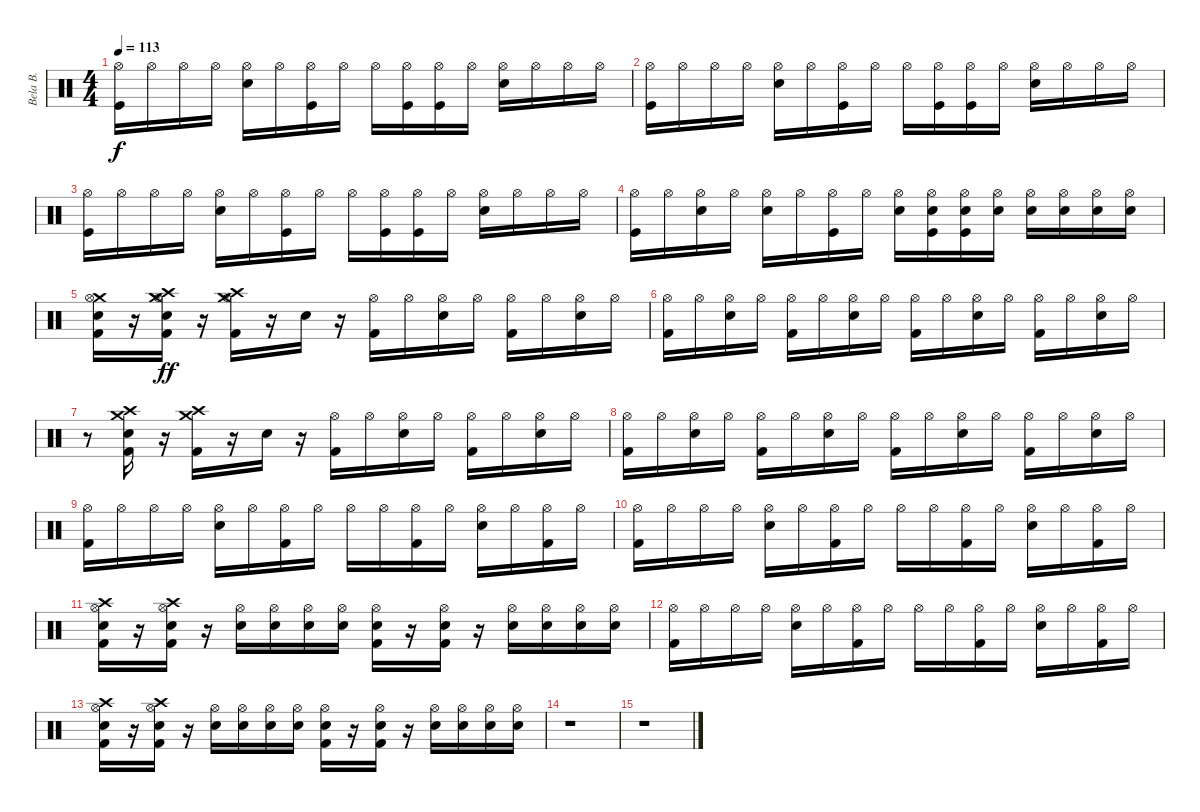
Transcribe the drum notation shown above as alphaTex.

\track ("Bela B." "Bela B.") {instrument percussion}
\staff {score}
\articulation defaults
\ts (4 4)
\tempo 113
\clef neutral
\ks c
("Kick (hit)" "Hi-Hat (open)").16{dy f} "Hi-Hat (open)".16 "Hi-Hat (open)".16 "Hi-Hat (open)".16 ("Hi-Hat (open)" "Snare (hit) 2").16 "Hi-Hat (open)".16 ("Kick (hit)" "Hi-Hat (open)").16 "Hi-Hat (open)".16 "Hi-Hat (open)".16 ("Hi-Hat (open)" "Kick (hit)").16 ("Kick (hit)" "Hi-Hat (open)").16 "Hi-Hat (open)".16 ("Snare (hit) 2" "Hi-Hat (open)").16 "Hi-Hat (open)".16 "Hi-Hat (open)".16 "Hi-Hat (open)".16 |
("Kick (hit)" "Hi-Hat (open)").16 "Hi-Hat (open)".16 "Hi-Hat (open)".16 "Hi-Hat (open)".16 ("Snare (hit) 2" "Hi-Hat (open)").16 "Hi-Hat (open)".16 ("Kick (hit)" "Hi-Hat (open)").16 "Hi-Hat (open)".16 "Hi-Hat (open)".16 ("Hi-Hat (open)" "Kick (hit)").16 ("Kick (hit)" "Hi-Hat (open)").16 "Hi-Hat (open)".16 ("Snare (hit) 2" "Hi-Hat (open)").16 "Hi-Hat (open)".16 "Hi-Hat (open)".16 "Hi-Hat (open)".16 |
("Kick (hit)" "Hi-Hat (open)").16 "Hi-Hat (open)".16 "Hi-Hat (open)".16 "Hi-Hat (open)".16 ("Snare (hit) 2" "Hi-Hat (open)").16 "Hi-Hat (open)".16 ("Hi-Hat (open)" "Kick (hit)").16 "Hi-Hat (open)".16 "Hi-Hat (open)".16 ("Kick (hit)" "Hi-Hat (open)").16 ("Hi-Hat (open)" "Kick (hit)").16 "Hi-Hat (open)".16 ("Snare (hit) 2" "Hi-Hat (open)").16 "Hi-Hat (open)".16 "Hi-Hat (open)".16 "Hi-Hat (open)".16 |
("Kick (hit)" "Hi-Hat (open)").16 "Hi-Hat (open)".16 ("Snare (hit) 2" "Hi-Hat (open)").16 "Hi-Hat (open)".16 ("Hi-Hat (open)" "Snare (hit) 2").16 "Hi-Hat (open)".16 ("Hi-Hat (open)" "Kick (hit)").16 "Hi-Hat (open)".16 ("Hi-Hat (open)" "Snare (hit) 2").16 ("Snare (hit) 2" "Kick (hit)" "Hi-Hat (open)").16 ("Snare (hit) 2" "Hi-Hat (open)" "Kick (hit)").16 ("Hi-Hat (open)" "Snare (hit) 2").16 ("Hi-Hat (open)" "Snare (hit) 2").16 ("Hi-Hat (open)" "Snare (hit) 2").16 ("Hi-Hat (open)" "Snare (hit) 2").16 ("Hi-Hat (open)" "Snare (hit) 2").16 |
("Crash medium (hit)" "Kick (hit) 2" "Snare (hit) 2" "Hi-Hat (open)").16 r.16 ("Crash medium (hit)" "Crash high (hit)" "Kick (hit) 2" "Snare (hit) 2" "Hi-Hat (open)").16{dy ff} r.16 ("Crash high (hit)" "Kick (hit) 2" "Hi-Hat (open)" "Crash medium (hit)").16 r.16 "Snare (hit) 2".16 r.16 ("Hi-Hat (open)" "Kick (hit) 2").16 "Hi-Hat (open)".16 ("Hi-Hat (open)" "Snare (hit) 2").16 "Hi-Hat (open)".16 ("Kick (hit) 2" "Hi-Hat (open)").16 "Hi-Hat (open)".16 ("Hi-Hat (open)" "Snare (hit) 2").16 "Hi-Hat (open)".16 |
("Hi-Hat (open)" "Kick (hit) 2").16 "Hi-Hat (open)".16 ("Snare (hit) 2" "Hi-Hat (open)").16 "Hi-Hat (open)".16 ("Hi-Hat (open)" "Kick (hit) 2").16 "Hi-Hat (open)".16 ("Hi-Hat (open)" "Snare (hit) 2").16 "Hi-Hat (open)".16 ("Hi-Hat (open)" "Kick (hit) 2").16 "Hi-Hat (open)".16 ("Hi-Hat (open)" "Snare (hit) 2").16 "Hi-Hat (open)".16 ("Hi-Hat (open)" "Kick (hit) 2").16 "Hi-Hat (open)".16 ("Snare (hit) 2" "Hi-Hat (open)").16 "Hi-Hat (open)".16 |
r.8 ("Snare (hit) 2" "Crash high (hit)" "Crash medium (hit)" "Kick (hit) 2").16 r.16 ("Crash medium (hit)" "Kick (hit) 2" "Crash high (hit)").16 r.16 "Snare (hit) 2".16 r.16 ("Kick (hit) 2" "Hi-Hat (open)").16 "Hi-Hat (open)".16 ("Hi-Hat (open)" "Snare (hit) 2").16 "Hi-Hat (open)".16 ("Hi-Hat (open)" "Kick (hit) 2").16 "Hi-Hat (open)".16 ("Hi-Hat (open)" "Snare (hit) 2").16 "Hi-Hat (open)".16 |
("Kick (hit) 2" "Hi-Hat (open)").16 "Hi-Hat (open)".16 ("Hi-Hat (open)" "Snare (hit) 2").16 "Hi-Hat (open)".16 ("Hi-Hat (open)" "Kick (hit) 2").16 "Hi-Hat (open)".16 ("Hi-Hat (open)" "Snare (hit) 2").16 "Hi-Hat (open)".16 ("Kick (hit) 2" "Hi-Hat (open)").16 "Hi-Hat (open)".16 ("Hi-Hat (open)" "Snare (hit) 2").16 "Hi-Hat (open)".16 ("Hi-Hat (open)" "Kick (hit) 2").16 "Hi-Hat (open)".16 ("Hi-Hat (open)" "Snare (hit) 2").16 "Hi-Hat (open)".16 |
("Hi-Hat (open)" "Kick (hit) 2").16 "Hi-Hat (open)".16 "Hi-Hat (open)".16 "Hi-Hat (open)".16 ("Hi-Hat (open)" "Snare (hit) 2").16 "Hi-Hat (open)".16 ("Hi-Hat (open)" "Kick (hit) 2").16 "Hi-Hat (open)".16 "Hi-Hat (open)".16 "Hi-Hat (open)".16 ("Hi-Hat (open)" "Kick (hit) 2").16 "Hi-Hat (open)".16 ("Snare (hit) 2" "Hi-Hat (open)").16 "Hi-Hat (open)".16 ("Kick (hit) 2" "Hi-Hat (open)").16 "Hi-Hat (open)".16 |
("Kick (hit) 2" "Hi-Hat (open)").16 "Hi-Hat (open)".16 "Hi-Hat (open)".16 "Hi-Hat (open)".16 ("Snare (hit) 2" "Hi-Hat (open)").16 "Hi-Hat (open)".16 ("Hi-Hat (open)" "Kick (hit) 2").16 "Hi-Hat (open)".16 "Hi-Hat (open)".16 "Hi-Hat (open)".16 ("Kick (hit) 2" "Hi-Hat (open)").16 "Hi-Hat (open)".16 ("Hi-Hat (open)" "Snare (hit) 2").16 "Hi-Hat (open)".16 ("Hi-Hat (open)" "Kick (hit) 2").16 "Hi-Hat (open)".16 |
("Crash high (hit)" "Hi-Hat (open)" "Snare (hit) 2" "Kick (hit) 2").16 r.16 ("Crash high (hit)" "Kick (hit) 2" "Snare (hit) 2" "Hi-Hat (open)").16 r.16 ("Snare (hit) 2" "Hi-Hat (open)").16 ("Hi-Hat (open)" "Snare (hit) 2").16 ("Snare (hit) 2" "Hi-Hat (open)").16 ("Hi-Hat (open)" "Snare (hit) 2").16 ("Hi-Hat (open)" "Snare (hit) 2" "Kick (hit) 2").16 r.16 ("Kick (hit) 2" "Snare (hit) 2" "Hi-Hat (open)").16 r.16 ("Snare (hit) 2" "Hi-Hat (open)").16 ("Hi-Hat (open)" "Snare (hit) 2").16 ("Snare (hit) 2" "Hi-Hat (open)").16 ("Snare (hit) 2" "Hi-Hat (open)").16 |
("Kick (hit) 2" "Hi-Hat (open)").16 "Hi-Hat (open)".16 "Hi-Hat (open)".16 "Hi-Hat (open)".16 ("Snare (hit) 2" "Hi-Hat (open)").16 "Hi-Hat (open)".16 ("Hi-Hat (open)" "Kick (hit) 2").16 "Hi-Hat (open)".16 "Hi-Hat (open)".16 "Hi-Hat (open)".16 ("Kick (hit) 2" "Hi-Hat (open)").16 "Hi-Hat (open)".16 ("Hi-Hat (open)" "Snare (hit) 2").16 "Hi-Hat (open)".16 ("Hi-Hat (open)" "Kick (hit) 2").16 "Hi-Hat (open)".16 |
("Crash high (hit)" "Hi-Hat (open)" "Snare (hit) 2" "Kick (hit) 2").16 r.16 ("Crash high (hit)" "Kick (hit) 2" "Snare (hit) 2" "Hi-Hat (open)").16 r.16 ("Snare (hit) 2" "Hi-Hat (open)").16 ("Hi-Hat (open)" "Snare (hit) 2").16 ("Snare (hit) 2" "Hi-Hat (open)").16 ("Hi-Hat (open)" "Snare (hit) 2").16 ("Hi-Hat (open)" "Snare (hit) 2" "Kick (hit) 2").16 r.16 ("Kick (hit) 2" "Snare (hit) 2" "Hi-Hat (open)").16 r.16 ("Snare (hit) 2" "Hi-Hat (open)").16 ("Hi-Hat (open)" "Snare (hit) 2").16 ("Snare (hit) 2" "Hi-Hat (open)").16 ("Snare (hit) 2" "Hi-Hat (open)").16 |
r.1 |
r.1
